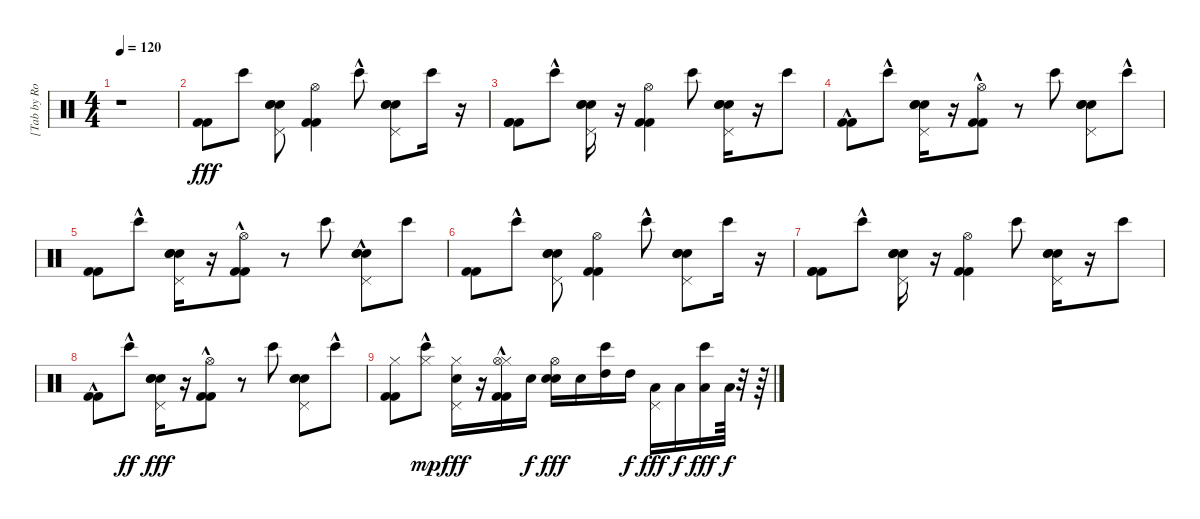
\track ("[Tab by Rodrigo Takahashi]" "[Tab by Ro") {instrument percussion}
\staff {score}
\articulation defaults
\ts (4 4)
\tempo 120
\clef neutral
\ks c
r.1{dy fff} |
("Kick (hit) 2" "Kick (hit) 2").8 "Bongo High (hit)".8 ("Hand Clap (hit)" "Pedal Hi-Hat (hit)" "Electric Snare (hit)" "Snare (hit) 2").8 ("Kick (hit) 2" "Kick (hit) 2" "Hi-Hat (open)").4 "Bongo High (hit)"{hac}.8 ("Pedal Hi-Hat (hit)" "Electric Snare (hit)" "Snare (hit) 2" "Hand Clap (hit)").8 "Bongo High (hit)".16 r.16 |
("Kick (hit) 2" "Kick (hit) 2" "Kick (hit) 2").8 "Bongo High (hit)"{hac}.8 ("Pedal Hi-Hat (hit)" "Electric Snare (hit)" "Snare (hit) 2" "Hand Clap (hit)").16 r.16 ("Kick (hit) 2" "Kick (hit) 2" "Hi-Hat (open)").4 "Bongo High (hit)".8 ("Pedal Hi-Hat (hit)" "Electric Snare (hit)" "Snare (hit) 2" "Hand Clap (hit)").16 r.16 "Bongo High (hit)".8 |
("Kick (hit) 2"{hac} "Kick (hit) 2"{hac}).8 "Bongo High (hit)"{hac}.8 ("Pedal Hi-Hat (hit)" "Electric Snare (hit)" "Snare (hit) 2" "Hand Clap (hit)").16 r.16 ("Kick (hit) 2"{hac} "Kick (hit) 2"{hac} "Hi-Hat (open)").8 r.8 "Bongo High (hit)".8 ("Snare (hit) 2" "Pedal Hi-Hat (hit)" "Electric Snare (hit)" "Hand Clap (hit)").8 "Bongo High (hit)"{hac}.8 |
("Kick (hit) 2" "Kick (hit) 2").8 "Bongo High (hit)"{hac}.8 ("Pedal Hi-Hat (hit)" "Electric Snare (hit)" "Snare (hit) 2" "Hand Clap (hit)").16 r.16 ("Kick (hit) 2"{hac} "Kick (hit) 2"{hac} "Hi-Hat (open)").8 r.8 "Bongo High (hit)".8 ("Snare (hit) 2" "Pedal Hi-Hat (hit)" "Electric Snare (hit)"{hac} "Hand Clap (hit)").8 "Bongo High (hit)".8 |
("Kick (hit) 2" "Kick (hit) 2").8 "Bongo High (hit)"{hac}.8 ("Hand Clap (hit)" "Pedal Hi-Hat (hit)" "Electric Snare (hit)" "Snare (hit) 2").8 ("Kick (hit) 2" "Kick (hit) 2" "Hi-Hat (open)").4 "Bongo High (hit)"{hac}.8 ("Pedal Hi-Hat (hit)" "Electric Snare (hit)" "Snare (hit) 2" "Hand Clap (hit)").8 "Bongo High (hit)".16 r.16 |
("Kick (hit) 2" "Kick (hit) 2" "Kick (hit) 2").8 "Bongo High (hit)"{hac}.8 ("Pedal Hi-Hat (hit)" "Electric Snare (hit)" "Snare (hit) 2" "Hand Clap (hit)").16 r.16 ("Kick (hit) 2" "Kick (hit) 2" "Hi-Hat (open)").4 "Bongo High (hit)".8 ("Pedal Hi-Hat (hit)" "Electric Snare (hit)" "Snare (hit) 2" "Hand Clap (hit)").16 r.16 "Bongo High (hit)".8 |
("Kick (hit) 2"{hac} "Kick (hit) 2"{hac}).8 "Bongo High (hit)"{hac}.8{dy ff} ("Pedal Hi-Hat (hit)" "Electric Snare (hit)" "Snare (hit) 2" "Hand Clap (hit)").16{dy fff} r.16 ("Kick (hit) 2"{hac} "Kick (hit) 2"{hac} "Hi-Hat (open)").8 r.8 "Bongo High (hit)".8 ("Snare (hit) 2" "Pedal Hi-Hat (hit)" "Electric Snare (hit)" "Hand Clap (hit)").8 "Bongo High (hit)"{hac}.8 |
("Hi-Hat (closed)" "Kick (hit) 2" "Kick (hit) 2").8 ("Bongo High (hit)"{hac} "Hi-Hat (closed)").8{dy mp} ("Hi-Hat (closed)" "Snare (hit) 2" "Pedal Hi-Hat (hit)").16{dy fff} r.16 ("Hi-Hat (closed)" "Kick (hit) 2"{hac} "Kick (hit) 2"{hac} "Hi-Hat (open)").16 "Snare (hit) 2".16{dy f} ("Snare (hit) 2" "Hi-Hat (open)" "Snare (hit) 2").16{dy fff} "Snare (hit) 2".16 ("High Tom (hit)" "Bongo High (hit)").16 "High Tom (hit)".16{dy f} ("Low Tom (hit)" "Pedal Hi-Hat (hit)").16{dy fff} "Low Tom (hit)".16{dy f} ("Low Floor Tom (hit)" "Bongo High (hit)").16{dy fff} "Low Floor Tom (hit)".64{dy f} r.32 r.64
